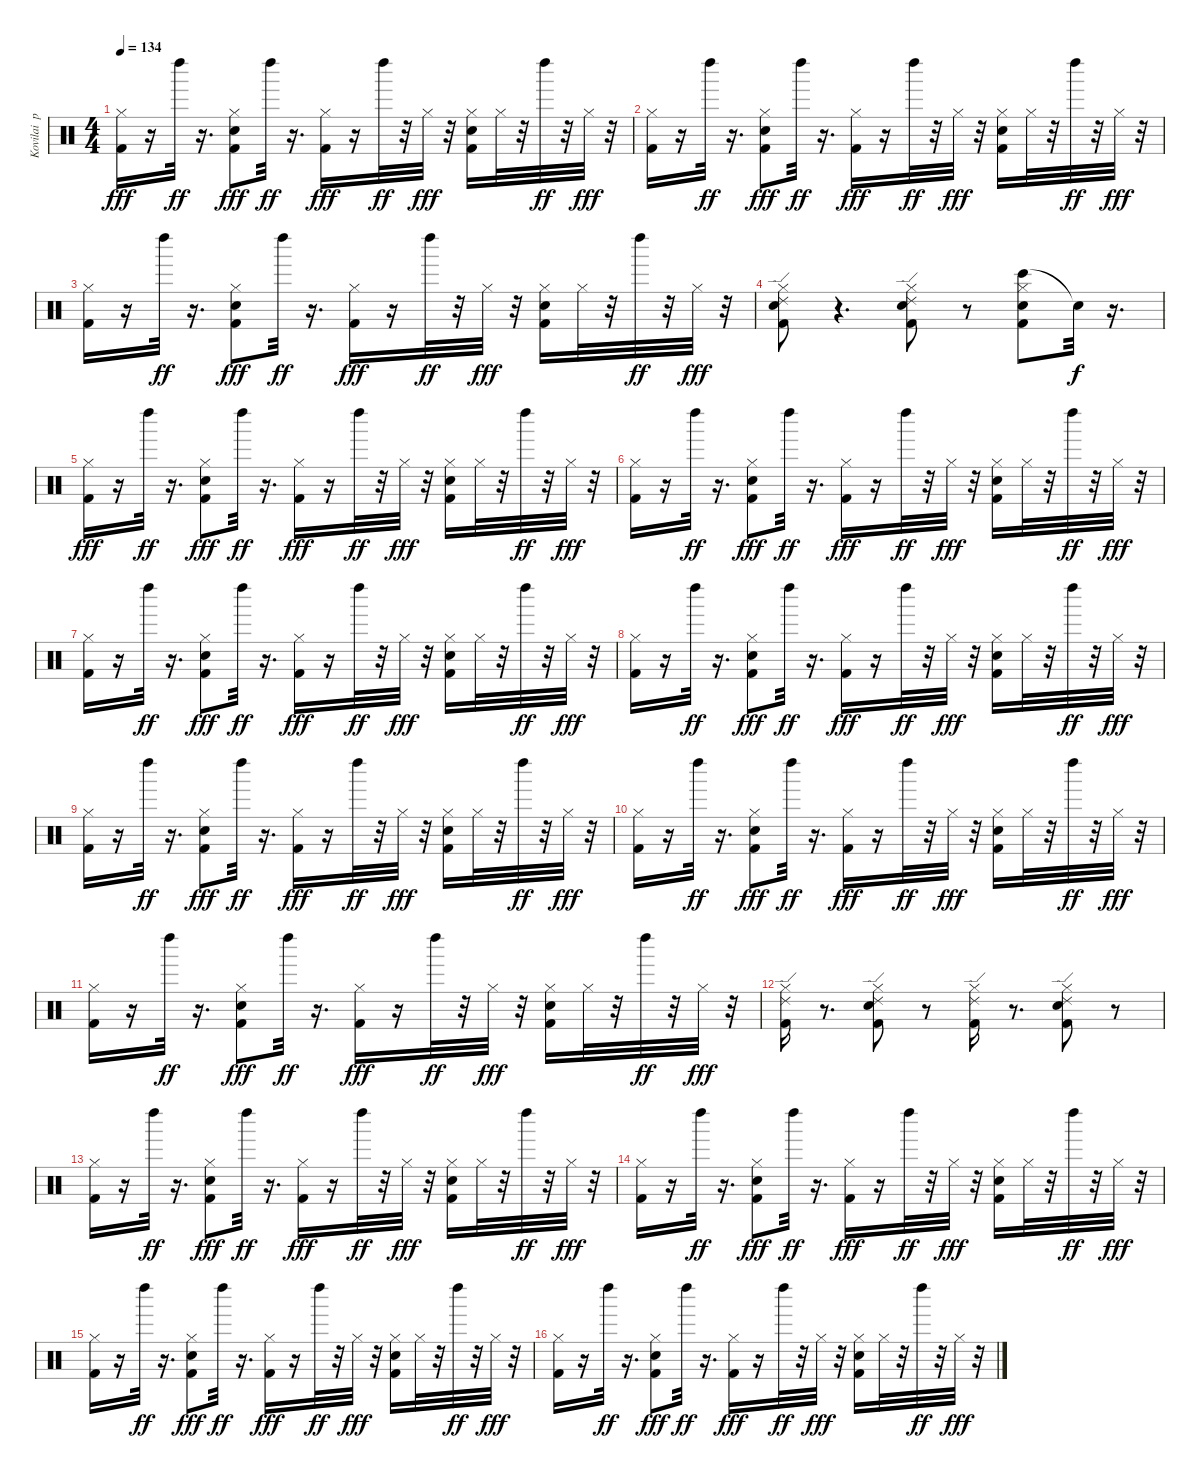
\track ("Kovilai  po tihonechky:" "Kovilai  p") {instrument percussion}
\staff {score}
\articulation defaults
\ts (4 4)
\tempo 134
\clef neutral
\ks c
("Hi-Hat (closed)" "Kick (hit) 2").16{dy fff} r.16 "Left Maraca (hit)".32{dy ff} r.16{d} ("Snare (hit) 2" "Hi-Hat (closed)" "Kick (hit) 2").8{dy fff} "Left Maraca (hit)".32{dy ff} r.16{d} ("Hi-Hat (closed)" "Kick (hit) 2").16{dy fff} r.16 "Left Maraca (hit)".32{dy ff} r.32 "Hi-Hat (closed)".32{dy fff} r.32 ("Hi-Hat (closed)" "Snare (hit) 2" "Kick (hit) 2").16 "Hi-Hat (closed)".32 r.32 "Left Maraca (hit)".32{dy ff} r.32 "Hi-Hat (closed)".32{dy fff} r.32 |
("Hi-Hat (closed)" "Kick (hit) 2").16 r.16 "Left Maraca (hit)".32{dy ff} r.16{d} ("Snare (hit) 2" "Hi-Hat (closed)" "Kick (hit) 2").8{dy fff} "Left Maraca (hit)".32{dy ff} r.16{d} ("Hi-Hat (closed)" "Kick (hit) 2").16{dy fff} r.16 "Left Maraca (hit)".32{dy ff} r.32 "Hi-Hat (closed)".32{dy fff} r.32 ("Hi-Hat (closed)" "Snare (hit) 2" "Kick (hit) 2").16 "Hi-Hat (closed)".32 r.32 "Left Maraca (hit)".32{dy ff} r.32 "Hi-Hat (closed)".32{dy fff} r.32 |
("Hi-Hat (closed)" "Kick (hit) 2").16 r.16 "Left Maraca (hit)".32{dy ff} r.16{d} ("Snare (hit) 2" "Hi-Hat (closed)" "Kick (hit) 2").8{dy fff} "Left Maraca (hit)".32{dy ff} r.16{d} ("Hi-Hat (closed)" "Kick (hit) 2").16{dy fff} r.16 "Left Maraca (hit)".32{dy ff} r.32 "Hi-Hat (closed)".32{dy fff} r.32 ("Hi-Hat (closed)" "Snare (hit) 2" "Kick (hit) 2").16 "Hi-Hat (closed)".32 r.32 "Left Maraca (hit)".32{dy ff} r.32 "Hi-Hat (closed)".32{dy fff} r.32 |
("Ride (edge) 2" "Snare (hit) 2" "Hi-Hat (closed)" "Kick (hit) 2").8 r.4{d} ("Ride (edge) 2" "Snare (hit) 2" "Hi-Hat (closed)" "Kick (hit) 2").8 r.8 ("Bongo High (hit)" "Snare (hit) 2" "Hi-Hat (closed)" "Kick (hit) 2").8 "Snare (hit)"{t}.32{dy f} r.16{d} |
("Hi-Hat (closed)" "Kick (hit) 2").16{dy fff} r.16 "Left Maraca (hit)".32{dy ff} r.16{d} ("Snare (hit) 2" "Hi-Hat (closed)" "Kick (hit) 2").8{dy fff} "Left Maraca (hit)".32{dy ff} r.16{d} ("Hi-Hat (closed)" "Kick (hit) 2").16{dy fff} r.16 "Left Maraca (hit)".32{dy ff} r.32 "Hi-Hat (closed)".32{dy fff} r.32 ("Hi-Hat (closed)" "Snare (hit) 2" "Kick (hit) 2").16 "Hi-Hat (closed)".32 r.32 "Left Maraca (hit)".32{dy ff} r.32 "Hi-Hat (closed)".32{dy fff} r.32 |
("Hi-Hat (closed)" "Kick (hit) 2").16 r.16 "Left Maraca (hit)".32{dy ff} r.16{d} ("Snare (hit) 2" "Hi-Hat (closed)" "Kick (hit) 2").8{dy fff} "Left Maraca (hit)".32{dy ff} r.16{d} ("Hi-Hat (closed)" "Kick (hit) 2").16{dy fff} r.16 "Left Maraca (hit)".32{dy ff} r.32 "Hi-Hat (closed)".32{dy fff} r.32 ("Hi-Hat (closed)" "Snare (hit) 2" "Kick (hit) 2").16 "Hi-Hat (closed)".32 r.32 "Left Maraca (hit)".32{dy ff} r.32 "Hi-Hat (closed)".32{dy fff} r.32 |
("Hi-Hat (closed)" "Kick (hit) 2").16 r.16 "Left Maraca (hit)".32{dy ff} r.16{d} ("Snare (hit) 2" "Hi-Hat (closed)" "Kick (hit) 2").8{dy fff} "Left Maraca (hit)".32{dy ff} r.16{d} ("Hi-Hat (closed)" "Kick (hit) 2").16{dy fff} r.16 "Left Maraca (hit)".32{dy ff} r.32 "Hi-Hat (closed)".32{dy fff} r.32 ("Hi-Hat (closed)" "Snare (hit) 2" "Kick (hit) 2").16 "Hi-Hat (closed)".32 r.32 "Left Maraca (hit)".32{dy ff} r.32 "Hi-Hat (closed)".32{dy fff} r.32 |
("Hi-Hat (closed)" "Kick (hit) 2").16 r.16 "Left Maraca (hit)".32{dy ff} r.16{d} ("Snare (hit) 2" "Hi-Hat (closed)" "Kick (hit) 2").8{dy fff} "Left Maraca (hit)".32{dy ff} r.16{d} ("Hi-Hat (closed)" "Kick (hit) 2").16{dy fff} r.16 "Left Maraca (hit)".32{dy ff} r.32 "Hi-Hat (closed)".32{dy fff} r.32 ("Hi-Hat (closed)" "Snare (hit) 2" "Kick (hit) 2").16 "Hi-Hat (closed)".32 r.32 "Left Maraca (hit)".32{dy ff} r.32 "Hi-Hat (closed)".32{dy fff} r.32 |
("Hi-Hat (closed)" "Kick (hit) 2").16 r.16 "Left Maraca (hit)".32{dy ff} r.16{d} ("Snare (hit) 2" "Hi-Hat (closed)" "Kick (hit) 2").8{dy fff} "Left Maraca (hit)".32{dy ff} r.16{d} ("Hi-Hat (closed)" "Kick (hit) 2").16{dy fff} r.16 "Left Maraca (hit)".32{dy ff} r.32 "Hi-Hat (closed)".32{dy fff} r.32 ("Hi-Hat (closed)" "Snare (hit) 2" "Kick (hit) 2").16 "Hi-Hat (closed)".32 r.32 "Left Maraca (hit)".32{dy ff} r.32 "Hi-Hat (closed)".32{dy fff} r.32 |
("Hi-Hat (closed)" "Kick (hit) 2").16 r.16 "Left Maraca (hit)".32{dy ff} r.16{d} ("Snare (hit) 2" "Hi-Hat (closed)" "Kick (hit) 2").8{dy fff} "Left Maraca (hit)".32{dy ff} r.16{d} ("Hi-Hat (closed)" "Kick (hit) 2").16{dy fff} r.16 "Left Maraca (hit)".32{dy ff} r.32 "Hi-Hat (closed)".32{dy fff} r.32 ("Hi-Hat (closed)" "Snare (hit) 2" "Kick (hit) 2").16 "Hi-Hat (closed)".32 r.32 "Left Maraca (hit)".32{dy ff} r.32 "Hi-Hat (closed)".32{dy fff} r.32 |
("Hi-Hat (closed)" "Kick (hit) 2").16 r.16 "Left Maraca (hit)".32{dy ff} r.16{d} ("Snare (hit) 2" "Hi-Hat (closed)" "Kick (hit) 2").8{dy fff} "Left Maraca (hit)".32{dy ff} r.16{d} ("Hi-Hat (closed)" "Kick (hit) 2").16{dy fff} r.16 "Left Maraca (hit)".32{dy ff} r.32 "Hi-Hat (closed)".32{dy fff} r.32 ("Hi-Hat (closed)" "Snare (hit) 2" "Kick (hit) 2").16 "Hi-Hat (closed)".32 r.32 "Left Maraca (hit)".32{dy ff} r.32 "Hi-Hat (closed)".32{dy fff} r.32 |
("Ride (edge) 2" "Hi-Hat (closed)" "Kick (hit) 2").16 r.8{d} ("Ride (edge) 2" "Snare (hit) 2" "Hi-Hat (closed)" "Kick (hit) 2").8 r.8 ("Ride (edge) 2" "Hi-Hat (closed)" "Kick (hit) 2").16 r.8{d} ("Ride (edge) 2" "Snare (hit) 2" "Hi-Hat (closed)" "Kick (hit) 2").8 r.8 |
("Hi-Hat (closed)" "Kick (hit) 2").16 r.16 "Left Maraca (hit)".32{dy ff} r.16{d} ("Snare (hit) 2" "Hi-Hat (closed)" "Kick (hit) 2").8{dy fff} "Left Maraca (hit)".32{dy ff} r.16{d} ("Hi-Hat (closed)" "Kick (hit) 2").16{dy fff} r.16 "Left Maraca (hit)".32{dy ff} r.32 "Hi-Hat (closed)".32{dy fff} r.32 ("Hi-Hat (closed)" "Snare (hit) 2" "Kick (hit) 2").16 "Hi-Hat (closed)".32 r.32 "Left Maraca (hit)".32{dy ff} r.32 "Hi-Hat (closed)".32{dy fff} r.32 |
("Hi-Hat (closed)" "Kick (hit) 2").16 r.16 "Left Maraca (hit)".32{dy ff} r.16{d} ("Snare (hit) 2" "Hi-Hat (closed)" "Kick (hit) 2").8{dy fff} "Left Maraca (hit)".32{dy ff} r.16{d} ("Hi-Hat (closed)" "Kick (hit) 2").16{dy fff} r.16 "Left Maraca (hit)".32{dy ff} r.32 "Hi-Hat (closed)".32{dy fff} r.32 ("Hi-Hat (closed)" "Snare (hit) 2" "Kick (hit) 2").16 "Hi-Hat (closed)".32 r.32 "Left Maraca (hit)".32{dy ff} r.32 "Hi-Hat (closed)".32{dy fff} r.32 |
("Hi-Hat (closed)" "Kick (hit) 2").16 r.16 "Left Maraca (hit)".32{dy ff} r.16{d} ("Snare (hit) 2" "Hi-Hat (closed)" "Kick (hit) 2").8{dy fff} "Left Maraca (hit)".32{dy ff} r.16{d} ("Hi-Hat (closed)" "Kick (hit) 2").16{dy fff} r.16 "Left Maraca (hit)".32{dy ff} r.32 "Hi-Hat (closed)".32{dy fff} r.32 ("Hi-Hat (closed)" "Snare (hit) 2" "Kick (hit) 2").16 "Hi-Hat (closed)".32 r.32 "Left Maraca (hit)".32{dy ff} r.32 "Hi-Hat (closed)".32{dy fff} r.32 |
("Hi-Hat (closed)" "Kick (hit) 2").16 r.16 "Left Maraca (hit)".32{dy ff} r.16{d} ("Snare (hit) 2" "Hi-Hat (closed)" "Kick (hit) 2").8{dy fff} "Left Maraca (hit)".32{dy ff} r.16{d} ("Hi-Hat (closed)" "Kick (hit) 2").16{dy fff} r.16 "Left Maraca (hit)".32{dy ff} r.32 "Hi-Hat (closed)".32{dy fff} r.32 ("Hi-Hat (closed)" "Snare (hit) 2" "Kick (hit) 2").16 "Hi-Hat (closed)".32 r.32 "Left Maraca (hit)".32{dy ff} r.32 "Hi-Hat (closed)".32{dy fff} r.32
